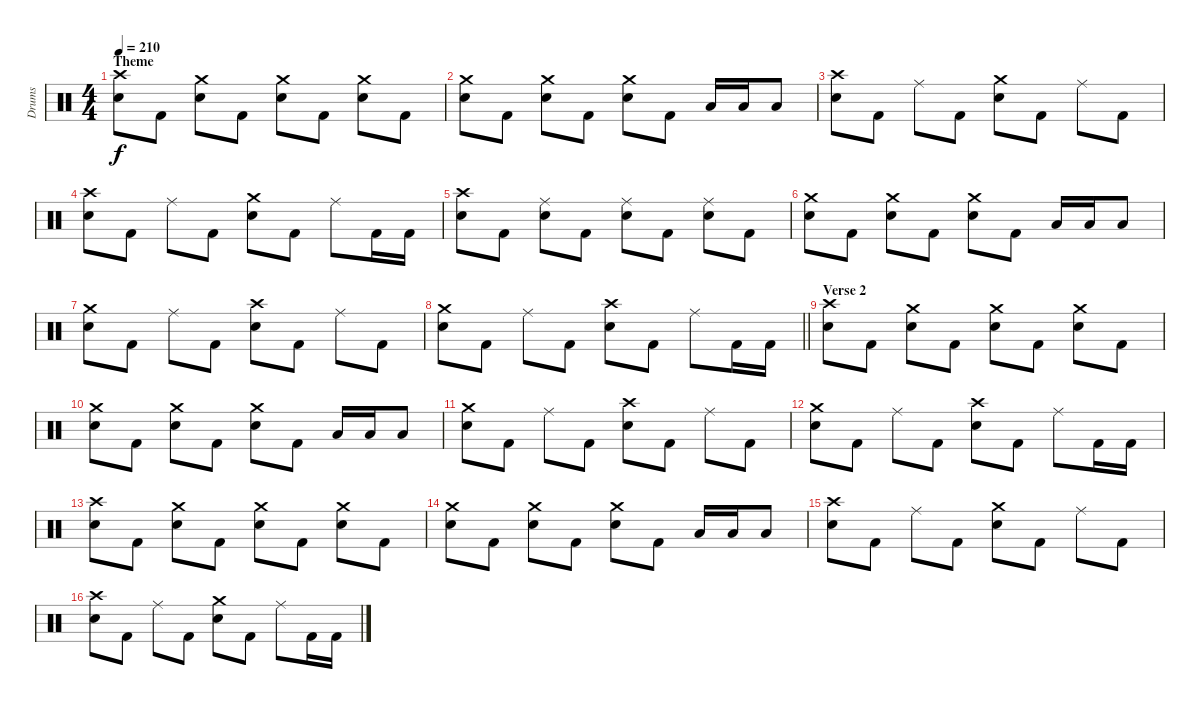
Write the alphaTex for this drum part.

\track ("Drums" "Drums") {instrument percussion}
\staff {score}
\articulation defaults
\ts (4 4)
\section ("" "Theme")
\tempo 210
\clef neutral
\ks c
("Crash high (hit)" "Electric Snare (hit)").8{dy f} "Kick (hit) 2".8 ("Crash medium (hit)" "Electric Snare (hit)").8 "Kick (hit) 2".8 ("Crash medium (hit)" "Electric Snare (hit)").8 "Kick (hit) 2".8 ("Crash medium (hit)" "Electric Snare (hit)").8 "Kick (hit) 2".8 |
("Crash medium (hit)" "Electric Snare (hit)").8 "Kick (hit) 2".8 ("Crash medium (hit)" "Electric Snare (hit)").8 "Kick (hit) 2".8 ("Crash medium (hit)" "Electric Snare (hit)").8 "Kick (hit) 2".8 "Low Tom (hit)".16 "Low Tom (hit)".16 "Low Tom (hit)".8 |
("Crash high (hit)" "Electric Snare (hit)").8 "Kick (hit) 2".8 "Ride (middle)".8 "Kick (hit) 2".8 ("Crash medium (hit)" "Electric Snare (hit)").8 "Kick (hit) 2".8 "Ride (middle)".8 "Kick (hit) 2".8 |
("Crash high (hit)" "Electric Snare (hit)").8 "Kick (hit) 2".8 "Ride (middle)".8 "Kick (hit) 2".8 ("Crash medium (hit)" "Electric Snare (hit)").8 "Kick (hit) 2".8 "Ride (middle)".8 "Kick (hit) 2".16 "Kick (hit) 2".16 |
("Crash high (hit)" "Electric Snare (hit)").8 "Kick (hit) 2".8 ("Ride (middle)" "Electric Snare (hit)").8 "Kick (hit) 2".8 ("Ride (middle)" "Electric Snare (hit)").8 "Kick (hit) 2".8 ("Ride (middle)" "Electric Snare (hit)").8 "Kick (hit) 2".8 |
("Crash medium (hit)" "Electric Snare (hit)").8 "Kick (hit) 2".8 ("Crash medium (hit)" "Electric Snare (hit)").8 "Kick (hit) 2".8 ("Crash medium (hit)" "Electric Snare (hit)").8 "Kick (hit) 2".8 "Low Floor Tom (hit)".16 "Low Floor Tom (hit)".16 "Low Floor Tom (hit)".8 |
("Crash medium (hit)" "Electric Snare (hit)").8 "Kick (hit) 2".8 "Ride (middle)".8 "Kick (hit) 2".8 ("Crash high (hit)" "Electric Snare (hit)").8 "Kick (hit) 2".8 "Ride (middle)".8 "Kick (hit) 2".8 |
\barLineRight lightlight
("Crash medium (hit)" "Electric Snare (hit)").8 "Kick (hit) 2".8 "Ride (middle)".8 "Kick (hit) 2".8 ("Crash high (hit)" "Electric Snare (hit)").8 "Kick (hit) 2".8 "Ride (middle)".8 "Kick (hit) 2".16 "Kick (hit) 2".16 |
\section ("" "Verse 2")
("Crash high (hit)" "Electric Snare (hit)").8 "Kick (hit) 2".8 ("Crash medium (hit)" "Electric Snare (hit)").8 "Kick (hit) 2".8 ("Crash medium (hit)" "Electric Snare (hit)").8 "Kick (hit) 2".8 ("Crash medium (hit)" "Electric Snare (hit)").8 "Kick (hit) 2".8 |
("Crash medium (hit)" "Electric Snare (hit)").8 "Kick (hit) 2".8 ("Crash medium (hit)" "Electric Snare (hit)").8 "Kick (hit) 2".8 ("Crash medium (hit)" "Electric Snare (hit)").8 "Kick (hit) 2".8 "Low Tom (hit)".16 "Low Tom (hit)".16 "Low Tom (hit)".8 |
("Crash medium (hit)" "Electric Snare (hit)").8 "Kick (hit) 2".8 "Ride (middle)".8 "Kick (hit) 2".8 ("Crash high (hit)" "Electric Snare (hit)").8 "Kick (hit) 2".8 "Ride (middle)".8 "Kick (hit) 2".8 |
("Crash medium (hit)" "Electric Snare (hit)").8 "Kick (hit) 2".8 "Ride (middle)".8 "Kick (hit) 2".8 ("Crash high (hit)" "Electric Snare (hit)").8 "Kick (hit) 2".8 "Ride (middle)".8 "Kick (hit) 2".16 "Kick (hit) 2".16 |
("Crash high (hit)" "Electric Snare (hit)").8 "Kick (hit) 2".8 ("Crash medium (hit)" "Electric Snare (hit)").8 "Kick (hit) 2".8 ("Crash medium (hit)" "Electric Snare (hit)").8 "Kick (hit) 2".8 ("Crash medium (hit)" "Electric Snare (hit)").8 "Kick (hit) 2".8 |
("Crash medium (hit)" "Electric Snare (hit)").8 "Kick (hit) 2".8 ("Crash medium (hit)" "Electric Snare (hit)").8 "Kick (hit) 2".8 ("Crash medium (hit)" "Electric Snare (hit)").8 "Kick (hit) 2".8 "Low Floor Tom (hit)".16 "Low Floor Tom (hit)".16 "Low Floor Tom (hit)".8 |
("Crash high (hit)" "Electric Snare (hit)").8 "Kick (hit) 2".8 "Ride (middle)".8 "Kick (hit) 2".8 ("Crash medium (hit)" "Electric Snare (hit)").8 "Kick (hit) 2".8 "Ride (middle)".8 "Kick (hit) 2".8 |
("Crash high (hit)" "Electric Snare (hit)").8 "Kick (hit) 2".8 "Ride (middle)".8 "Kick (hit) 2".8 ("Crash medium (hit)" "Electric Snare (hit)").8 "Kick (hit) 2".8 "Ride (middle)".8 "Kick (hit) 2".16 "Kick (hit) 2".16
